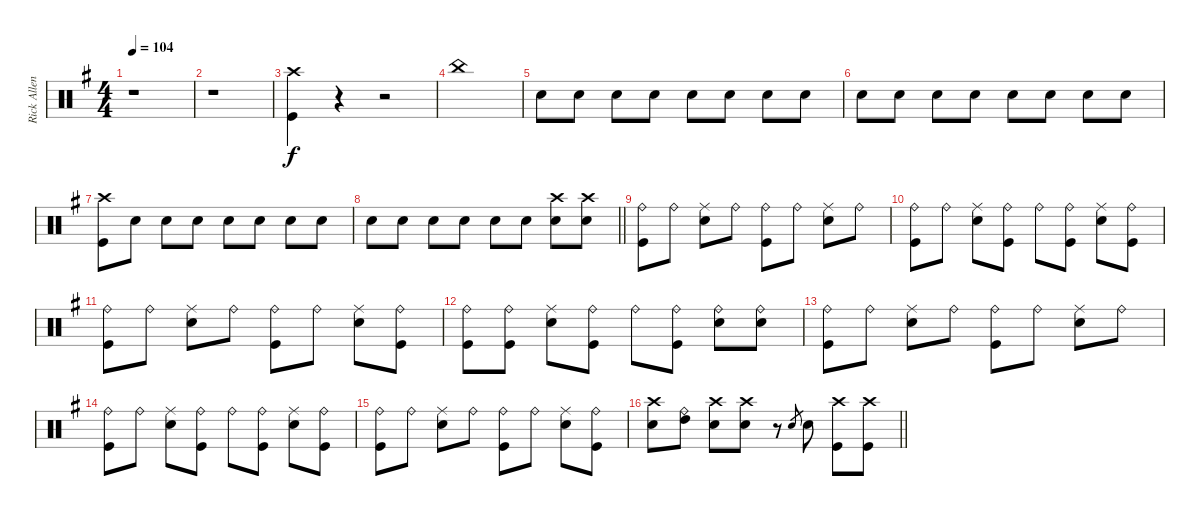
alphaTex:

\track ("Rick Allen" "Rick Allen") {instrument percussion}
\staff {score}
\articulation defaults
\ts (4 4)
\tempo 104
\clef neutral
\ks eminor
r.1{dy f} |
r.1 |
("Crash high (hit)" "Kick (hit)").4 r.4 r.2 |
"China (hit)".1 |
"Snare (hit) 2".8 "Snare (hit) 2".8 "Snare (hit) 2".8 "Snare (hit) 2".8 "Snare (hit) 2".8 "Snare (hit) 2".8 "Snare (hit) 2".8 "Snare (hit) 2".8 |
"Snare (hit) 2".8 "Snare (hit) 2".8 "Snare (hit) 2".8 "Snare (hit) 2".8 "Snare (hit) 2".8 "Snare (hit) 2".8 "Snare (hit) 2".8 "Snare (hit) 2".8 |
("Crash high (hit)" "Kick (hit)").8 "Snare (hit) 2".8 "Snare (hit) 2".8 "Snare (hit) 2".8 "Snare (hit) 2".8 "Snare (hit) 2".8 "Snare (hit) 2".8 "Snare (hit) 2".8 |
\barLineRight lightlight "Snare (hit) 2".8 "Snare (hit) 2".8 "Snare (hit) 2".8 "Snare (hit) 2".8 "Snare (hit) 2".8 "Snare (hit) 2".8
("Crash high (hit)" "Snare (hit) 2").8 ("Crash high (hit)" "Snare (hit) 2").8 |
("Ride (bell)" "Kick (hit)").8 "Ride (bell)".8 ("Ride (middle)" "Snare (hit) 2").8 "Ride (bell)".8 ("Ride (bell)" "Kick (hit)").8 "Ride (bell)".8 ("Ride (middle)" "Snare (hit) 2").8 "Ride (bell)".8 |
("Ride (bell)" "Kick (hit)").8 "Ride (bell)".8 ("Ride (middle)" "Snare (hit) 2").8 ("Ride (bell)" "Kick (hit)").8 "Ride (bell)".8 ("Ride (bell)" "Kick (hit)").8 ("Ride (middle)" "Snare (hit) 2").8 ("Ride (bell)" "Kick (hit)").8 |
("Ride (bell)" "Kick (hit)").8 "Ride (bell)".8 ("Ride (middle)" "Snare (hit) 2").8 "Ride (bell)".8 ("Ride (bell)" "Kick (hit)").8 "Ride (bell)".8 ("Ride (middle)" "Snare (hit) 2").8 ("Ride (bell)" "Kick (hit)").8 |
("Ride (bell)" "Kick (hit)").8 ("Ride (bell)" "Kick (hit)").8 ("Ride (middle)" "Snare (hit) 2").8 ("Ride (bell)" "Kick (hit)").8 "Ride (bell)".8 ("Ride (bell)" "Kick (hit)").8 ("Ride (bell)" "Snare (hit) 2").8 ("Ride (bell)" "Snare (hit) 2").8 |
("Ride (bell)" "Kick (hit)").8 "Ride (bell)".8 ("Ride (middle)" "Snare (hit) 2").8 "Ride (bell)".8 ("Ride (bell)" "Kick (hit)").8 "Ride (bell)".8 ("Ride (middle)" "Snare (hit) 2").8 "Ride (bell)".8 |
("Ride (bell)" "Kick (hit)").8 "Ride (bell)".8 ("Ride (middle)" "Snare (hit) 2").8 ("Ride (bell)" "Kick (hit)").8 "Ride (bell)".8 ("Ride (bell)" "Kick (hit)").8 ("Ride (middle)" "Snare (hit) 2").8 ("Ride (bell)" "Kick (hit)").8 |
("Ride (bell)" "Kick (hit)").8 "Ride (bell)".8 ("Ride (middle)" "Snare (hit) 2").8 "Ride (bell)".8 ("Ride (bell)" "Kick (hit)").8 "Ride (bell)".8 ("Ride (middle)" "Snare (hit) 2").8 ("Ride (bell)" "Kick (hit)").8 |
\barLineRight lightlight
("Crash high (hit)" "Snare (hit) 2").8 ("Ride (bell)" "High Tom (hit)").8 ("Crash high (hit)" "Snare (hit) 2").8 ("Crash high (hit)" "Snare (hit) 2").8 r.8 "Snare (hit) 2".8{gr} "Snare (hit) 2".8 ("Crash high (hit)" "Kick (hit)").8 ("Crash high (hit)" "Kick (hit)").8
